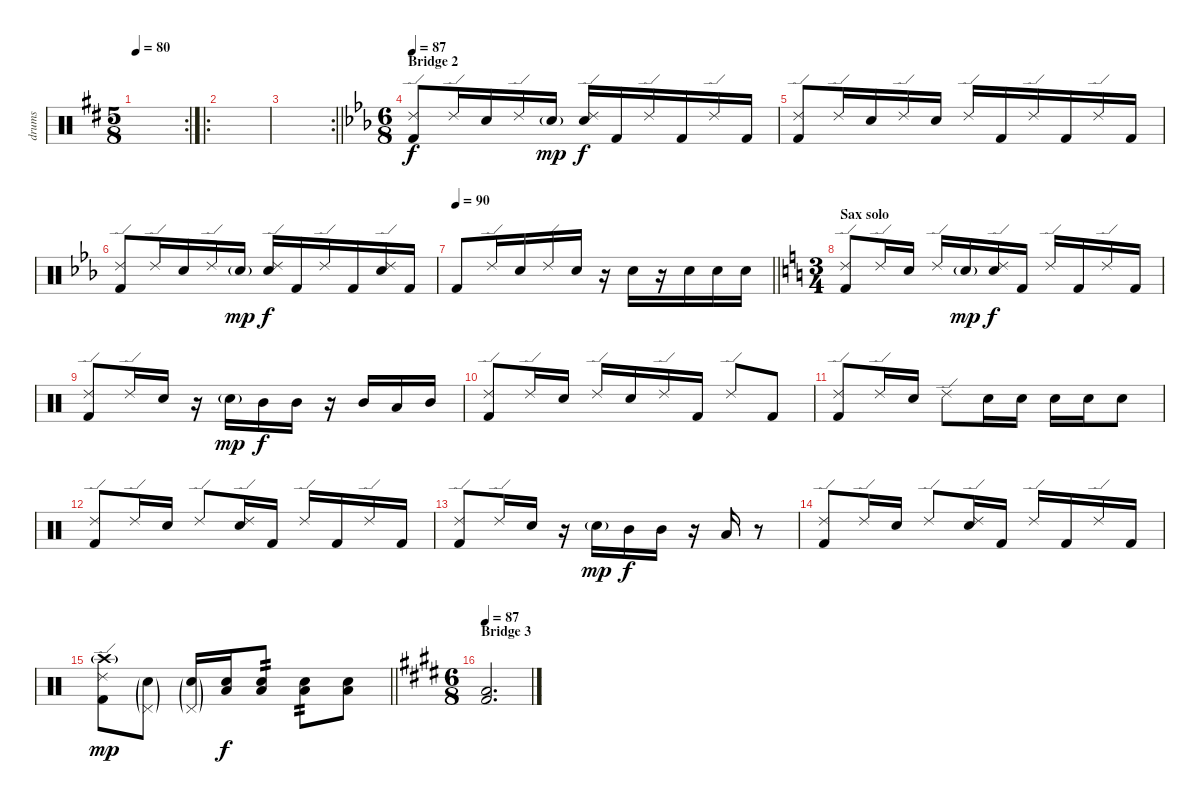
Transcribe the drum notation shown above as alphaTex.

\track ("drums" "drums") {instrument percussion}
\staff {score}
\articulation defaults
\rc 2
\ts (5 8)
\tempo 80
\clef neutral
\ks d
|
\ro
|
\rc 2
\barLineRight lightlight
|
\ts (6 8)
\section ("" "Bridge 2")
\tempo 87
\ks eb
("Ride (edge) 2" "Kick (hit) 2").8{dy f} "Ride (edge) 2".16 "Electric Snare (hit)".16 "Ride (edge) 2".16 "Electric Snare (hit)"{g}.16{dy mp} ("Ride (edge) 2" "Electric Snare (hit)").16{dy f} "Kick (hit) 2".16 "Ride (edge) 2".16 "Kick (hit) 2".16 "Ride (edge) 2".16 "Kick (hit) 2".16 |
("Ride (edge) 2" "Kick (hit) 2").8 "Ride (edge) 2".16 "Electric Snare (hit)".16 "Ride (edge) 2".16 "Electric Snare (hit)".16 "Ride (edge) 2".16 "Kick (hit) 2".16 "Ride (edge) 2".16 "Kick (hit) 2".16 "Ride (edge) 2".16 "Kick (hit) 2".16 |
("Ride (edge) 2" "Kick (hit) 2").8 "Ride (edge) 2".16 "Electric Snare (hit)".16 "Ride (edge) 2".16 "Electric Snare (hit)"{g}.16{dy mp} ("Ride (edge) 2" "Electric Snare (hit)").16{dy f} "Kick (hit) 2".16 "Ride (edge) 2".16 "Kick (hit) 2".16 ("Ride (edge) 2" "Electric Snare (hit)").16 "Kick (hit) 2".16 |
\tempo 90
\barLineRight lightlight "Kick (hit) 2".8 "Ride (edge) 2".16 "Electric Snare (hit)".16 "Ride (edge) 2".16 "Electric Snare (hit)".16
r.16 "Electric Snare (hit)".16 r.16 "Electric Snare (hit)".16 "Electric Snare (hit)".16 "Electric Snare (hit)".16 |
\ts (3 4)
\section ("" "Sax solo")
\ks c
("Ride (edge) 2" "Kick (hit) 2").8 "Ride (edge) 2".16 "Electric Snare (hit)".16 "Ride (edge) 2".16 "Electric Snare (hit)"{g}.16{dy mp} ("Ride (edge) 2" "Electric Snare (hit)").16{dy f} "Kick (hit) 2".16 "Ride (edge) 2".16 "Kick (hit) 2".16 "Ride (edge) 2".16 "Kick (hit) 2".16 |
("Ride (edge) 2" "Kick (hit) 2").8 "Ride (edge) 2".16 "Electric Snare (hit)".16 r.16 "Electric Snare (hit)"{g}.16{dy mp} "Mid Tom (hit)".16{dy f} "Mid Tom (hit)".16 r.16 "Mid Tom (hit)".16 "Low Tom (hit)".16 "Mid Tom (hit)".16 |
("Ride (edge) 2" "Kick (hit) 2").8 "Ride (edge) 2".16 "Electric Snare (hit)".16 "Ride (edge) 2".16 "Electric Snare (hit)".16 "Ride (edge) 2".16 "Kick (hit) 2".16 "Ride (edge) 2".8 "Kick (hit) 2".8 |
("Ride (edge) 2" "Kick (hit) 2").8 "Ride (edge) 2".16 "Electric Snare (hit)".16 "Ride (edge) 2".8 "Electric Snare (hit)".16 "Electric Snare (hit)".16 "Electric Snare (hit)".16 "Electric Snare (hit)".16 "Electric Snare (hit)".8 |
("Ride (edge) 2" "Kick (hit) 2").8 "Ride (edge) 2".16 "Electric Snare (hit)".16 "Ride (edge) 2".8 ("Ride (edge) 2" "Electric Snare (hit)").16 "Kick (hit) 2".16 "Ride (edge) 2".16 "Kick (hit) 2".16 "Ride (edge) 2".16 "Kick (hit) 2".16 |
("Ride (edge) 2" "Kick (hit) 2").8 "Ride (edge) 2".16 "Electric Snare (hit)".16 r.16 "Electric Snare (hit)"{g}.16{dy mp} "Mid Tom (hit)".16{dy f} "Mid Tom (hit)".16 r.16 "Low Tom (hit)".16 r.8 |
("Ride (edge) 2" "Kick (hit) 2").8 "Ride (edge) 2".16 "Electric Snare (hit)".16 "Ride (edge) 2".8 ("Ride (edge) 2" "Electric Snare (hit)").16 "Kick (hit) 2".16 "Ride (edge) 2".16 "Kick (hit) 2".16 "Ride (edge) 2".16 "Kick (hit) 2".16 |
\barLineRight lightlight
("Crash high (hit)"{g} "Ride (edge) 2" "Kick (hit) 2").8{dy mp} ("Pedal Hi-Hat (hit)"{g} "Electric Snare (hit)"{g}).8 ("Pedal Hi-Hat (hit)"{g} "Electric Snare (hit)"{g}).16 ("Low Tom (hit)" "Electric Snare (hit)").16{dy f} ("Low Tom (hit)" "Electric Snare (hit)").8{tp 2} ("Low Tom (hit)" "Electric Snare (hit)").8{tp 2} ("Low Tom (hit)" "Electric Snare (hit)").8 |
\ts (6 8)
\section ("" "Bridge 3")
\tempo 87
\ks e
("Low Tom (hit)" "Kick (hit) 2").2{d}
